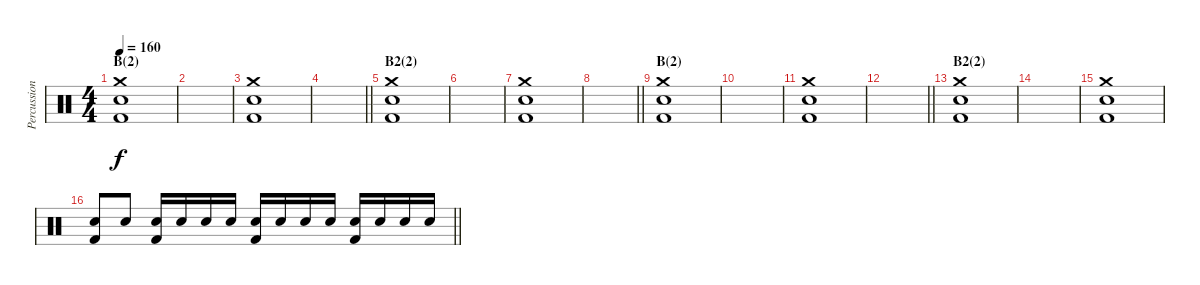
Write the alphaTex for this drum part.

\track ("Percussion" "Percussion") {instrument percussion}
\staff {score}
\articulation defaults
\ts (4 4)
\section ("" "B(2)")
\tempo 160
\clef neutral
\ks c
("Crash medium (hit)" "Electric Snare (hit)" "Kick (hit) 2").1{dy f} |
|
("Crash medium (hit)" "Electric Snare (hit)" "Kick (hit) 2").1 |
\barLineRight lightlight
|
\section ("" "B2(2)")
("Crash medium (hit)" "Electric Snare (hit)" "Kick (hit) 2").1 |
|
("Crash medium (hit)" "Electric Snare (hit)" "Kick (hit) 2").1 |
\barLineRight lightlight
|
\section ("" "B(2)")
("Crash medium (hit)" "Electric Snare (hit)" "Kick (hit) 2").1 |
|
("Crash medium (hit)" "Electric Snare (hit)" "Kick (hit) 2").1 |
\barLineRight lightlight
|
\section ("" "B2(2)")
("Crash medium (hit)" "Electric Snare (hit)" "Kick (hit) 2").1 |
|
("Crash medium (hit)" "Electric Snare (hit)" "Kick (hit) 2").1 |
\barLineRight lightlight
("Electric Snare (hit)" "Kick (hit) 2").8 "Electric Snare (hit)".8 ("Electric Snare (hit)" "Kick (hit) 2").16 "Electric Snare (hit)".16 "Electric Snare (hit)".16 "Electric Snare (hit)".16 ("Electric Snare (hit)" "Kick (hit) 2").16 "Electric Snare (hit)".16 "Electric Snare (hit)".16 "Electric Snare (hit)".16 ("Electric Snare (hit)" "Kick (hit) 2").16 "Electric Snare (hit)".16 "Electric Snare (hit)".16 "Electric Snare (hit)".16
